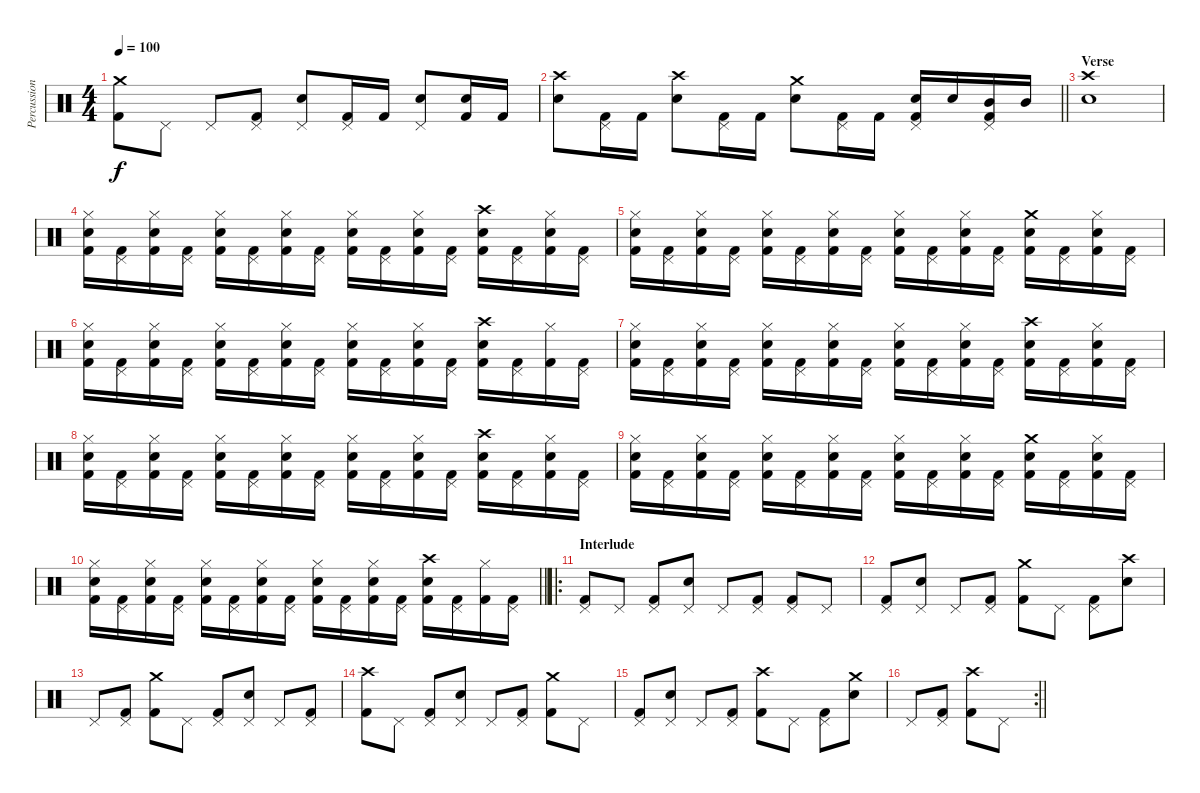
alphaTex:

\track ("Percussion" "Percussion") {instrument percussion}
\staff {score}
\articulation defaults
\ts (4 4)
\tempo 100
\clef neutral
\ks c
("Crash medium (hit)" "Kick (hit) 2").8{dy f} "Pedal Hi-Hat (hit)".8 "Pedal Hi-Hat (hit)".8 ("Pedal Hi-Hat (hit)" "Kick (hit) 2").8 ("Pedal Hi-Hat (hit)" "Snare (hit) 2").8 ("Pedal Hi-Hat (hit)" "Kick (hit) 2").16 "Kick (hit) 2".16 ("Pedal Hi-Hat (hit)" "Snare (hit) 2").8 ("Snare (hit)" "Kick (hit) 2").16 "Kick (hit) 2".16 |
\barLineRight lightlight
("Crash high (hit)" "Snare (hit) 2").8 ("Pedal Hi-Hat (hit)" "Kick (hit) 2").16 "Kick (hit) 2".16 ("Crash high (hit)" "Snare (hit) 2").8 ("Pedal Hi-Hat (hit)" "Kick (hit) 2").16 "Kick (hit) 2".16 ("Crash medium (hit)" "Snare (hit) 2").8 ("Pedal Hi-Hat (hit)" "Kick (hit) 2").16 "Kick (hit) 2".16 ("Pedal Hi-Hat (hit)" "Snare (hit) 2" "Kick (hit) 2").16 "Snare (hit) 2".16 ("Pedal Hi-Hat (hit)" "Mid Tom (hit)" "Kick (hit) 2").16 "Mid Tom (hit)".16 |
\section ("" "Verse")
("Crash high (hit)" "Snare (hit) 2").1 |
("Hi-Hat (closed)" "Snare (hit) 2" "Kick (hit) 2").16 ("Pedal Hi-Hat (hit)" "Kick (hit) 2").16 ("Hi-Hat (closed)" "Snare (hit) 2" "Kick (hit) 2").16 ("Pedal Hi-Hat (hit)" "Kick (hit) 2").16 ("Hi-Hat (closed)" "Snare (hit) 2" "Kick (hit) 2").16 ("Pedal Hi-Hat (hit)" "Kick (hit) 2").16 ("Hi-Hat (closed)" "Snare (hit) 2" "Kick (hit) 2").16 ("Pedal Hi-Hat (hit)" "Kick (hit) 2").16 ("Hi-Hat (closed)" "Snare (hit) 2" "Kick (hit) 2").16 ("Pedal Hi-Hat (hit)" "Kick (hit) 2").16 ("Hi-Hat (closed)" "Snare (hit) 2" "Kick (hit) 2").16 ("Pedal Hi-Hat (hit)" "Kick (hit) 2").16 ("Crash high (hit)" "Snare (hit) 2" "Kick (hit) 2").16 ("Pedal Hi-Hat (hit)" "Kick (hit) 2").16 ("Hi-Hat (closed)" "Snare (hit) 2" "Kick (hit) 2").16 ("Pedal Hi-Hat (hit)" "Kick (hit) 2").16 |
("Hi-Hat (closed)" "Snare (hit) 2" "Kick (hit) 2").16 ("Pedal Hi-Hat (hit)" "Kick (hit) 2").16 ("Hi-Hat (closed)" "Snare (hit) 2" "Kick (hit) 2").16 ("Pedal Hi-Hat (hit)" "Kick (hit) 2").16 ("Hi-Hat (closed)" "Snare (hit) 2" "Kick (hit) 2").16 ("Pedal Hi-Hat (hit)" "Kick (hit) 2").16 ("Hi-Hat (closed)" "Snare (hit) 2" "Kick (hit) 2").16 ("Pedal Hi-Hat (hit)" "Kick (hit) 2").16 ("Hi-Hat (closed)" "Snare (hit) 2" "Kick (hit) 2").16 ("Pedal Hi-Hat (hit)" "Kick (hit) 2").16 ("Hi-Hat (closed)" "Snare (hit) 2" "Kick (hit) 2").16 ("Pedal Hi-Hat (hit)" "Kick (hit) 2").16 ("Crash medium (hit)" "Snare (hit) 2" "Kick (hit) 2").16 ("Pedal Hi-Hat (hit)" "Kick (hit) 2").16 ("Hi-Hat (closed)" "Snare (hit) 2" "Kick (hit) 2").16 ("Pedal Hi-Hat (hit)" "Kick (hit) 2").16 |
("Hi-Hat (closed)" "Snare (hit) 2" "Kick (hit) 2").16 ("Pedal Hi-Hat (hit)" "Kick (hit) 2").16 ("Hi-Hat (closed)" "Snare (hit) 2" "Kick (hit) 2").16 ("Pedal Hi-Hat (hit)" "Kick (hit) 2").16 ("Hi-Hat (closed)" "Snare (hit) 2" "Kick (hit) 2").16 ("Pedal Hi-Hat (hit)" "Kick (hit) 2").16 ("Hi-Hat (closed)" "Snare (hit) 2" "Kick (hit) 2").16 ("Pedal Hi-Hat (hit)" "Kick (hit) 2").16 ("Hi-Hat (closed)" "Snare (hit) 2" "Kick (hit) 2").16 ("Pedal Hi-Hat (hit)" "Kick (hit) 2").16 ("Hi-Hat (closed)" "Snare (hit) 2" "Kick (hit) 2").16 ("Pedal Hi-Hat (hit)" "Kick (hit) 2").16 ("Crash high (hit)" "Snare (hit) 2" "Kick (hit) 2").16 ("Pedal Hi-Hat (hit)" "Kick (hit) 2").16 ("Hi-Hat (closed)" "Kick (hit) 2").16 ("Pedal Hi-Hat (hit)" "Kick (hit) 2").16 |
("Hi-Hat (closed)" "Snare (hit) 2" "Kick (hit) 2").16 ("Pedal Hi-Hat (hit)" "Kick (hit) 2").16 ("Hi-Hat (closed)" "Snare (hit) 2" "Kick (hit) 2").16 ("Pedal Hi-Hat (hit)" "Kick (hit) 2").16 ("Hi-Hat (closed)" "Snare (hit) 2" "Kick (hit) 2").16 ("Pedal Hi-Hat (hit)" "Kick (hit) 2").16 ("Hi-Hat (closed)" "Snare (hit) 2" "Kick (hit) 2").16 ("Pedal Hi-Hat (hit)" "Kick (hit) 2").16 ("Hi-Hat (closed)" "Snare (hit) 2" "Kick (hit) 2").16 ("Pedal Hi-Hat (hit)" "Kick (hit) 2").16 ("Hi-Hat (closed)" "Snare (hit) 2" "Kick (hit) 2").16 ("Pedal Hi-Hat (hit)" "Kick (hit) 2").16 ("Crash high (hit)" "Snare (hit) 2" "Kick (hit) 2").16 ("Pedal Hi-Hat (hit)" "Kick (hit) 2").16 ("Hi-Hat (closed)" "Snare (hit) 2" "Kick (hit) 2").16 ("Pedal Hi-Hat (hit)" "Kick (hit) 2").16 |
("Hi-Hat (closed)" "Snare (hit) 2" "Kick (hit) 2").16 ("Pedal Hi-Hat (hit)" "Kick (hit) 2").16 ("Hi-Hat (closed)" "Snare (hit) 2" "Kick (hit) 2").16 ("Pedal Hi-Hat (hit)" "Kick (hit) 2").16 ("Hi-Hat (closed)" "Snare (hit) 2" "Kick (hit) 2").16 ("Pedal Hi-Hat (hit)" "Kick (hit) 2").16 ("Hi-Hat (closed)" "Snare (hit) 2" "Kick (hit) 2").16 ("Pedal Hi-Hat (hit)" "Kick (hit) 2").16 ("Hi-Hat (closed)" "Snare (hit) 2" "Kick (hit) 2").16 ("Pedal Hi-Hat (hit)" "Kick (hit) 2").16 ("Hi-Hat (closed)" "Snare (hit) 2" "Kick (hit) 2").16 ("Pedal Hi-Hat (hit)" "Kick (hit) 2").16 ("Crash high (hit)" "Snare (hit) 2" "Kick (hit) 2").16 ("Pedal Hi-Hat (hit)" "Kick (hit) 2").16 ("Hi-Hat (closed)" "Snare (hit) 2" "Kick (hit) 2").16 ("Pedal Hi-Hat (hit)" "Kick (hit) 2").16 |
("Hi-Hat (closed)" "Snare (hit) 2" "Kick (hit) 2").16 ("Pedal Hi-Hat (hit)" "Kick (hit) 2").16 ("Hi-Hat (closed)" "Snare (hit) 2" "Kick (hit) 2").16 ("Pedal Hi-Hat (hit)" "Kick (hit) 2").16 ("Hi-Hat (closed)" "Snare (hit) 2" "Kick (hit) 2").16 ("Pedal Hi-Hat (hit)" "Kick (hit) 2").16 ("Hi-Hat (closed)" "Snare (hit) 2" "Kick (hit) 2").16 ("Pedal Hi-Hat (hit)" "Kick (hit) 2").16 ("Hi-Hat (closed)" "Snare (hit) 2" "Kick (hit) 2").16 ("Pedal Hi-Hat (hit)" "Kick (hit) 2").16 ("Hi-Hat (closed)" "Snare (hit) 2" "Kick (hit) 2").16 ("Pedal Hi-Hat (hit)" "Kick (hit) 2").16 ("Crash medium (hit)" "Snare (hit) 2" "Kick (hit) 2").16 ("Pedal Hi-Hat (hit)" "Kick (hit) 2").16 ("Hi-Hat (closed)" "Snare (hit) 2" "Kick (hit) 2").16 ("Pedal Hi-Hat (hit)" "Kick (hit) 2").16 |
\barLineRight lightlight
("Hi-Hat (closed)" "Snare (hit) 2" "Kick (hit) 2").16 ("Pedal Hi-Hat (hit)" "Kick (hit) 2").16 ("Hi-Hat (closed)" "Snare (hit) 2" "Kick (hit) 2").16 ("Pedal Hi-Hat (hit)" "Kick (hit) 2").16 ("Hi-Hat (closed)" "Snare (hit) 2" "Kick (hit) 2").16 ("Pedal Hi-Hat (hit)" "Kick (hit) 2").16 ("Hi-Hat (closed)" "Snare (hit) 2" "Kick (hit) 2").16 ("Pedal Hi-Hat (hit)" "Kick (hit) 2").16 ("Hi-Hat (closed)" "Snare (hit) 2" "Kick (hit) 2").16 ("Pedal Hi-Hat (hit)" "Kick (hit) 2").16 ("Hi-Hat (closed)" "Snare (hit) 2" "Kick (hit) 2").16 ("Pedal Hi-Hat (hit)" "Kick (hit) 2").16 ("Crash high (hit)" "Snare (hit) 2" "Kick (hit) 2").16 ("Pedal Hi-Hat (hit)" "Kick (hit) 2").16 ("Hi-Hat (closed)" "Kick (hit) 2").16 ("Pedal Hi-Hat (hit)" "Kick (hit) 2").16 |
\ro
\section ("" "Interlude")
("Pedal Hi-Hat (hit)" "Kick (hit) 2").8 "Pedal Hi-Hat (hit)".8 ("Pedal Hi-Hat (hit)" "Kick (hit) 2").8 ("Pedal Hi-Hat (hit)" "Snare (hit) 2").8 "Pedal Hi-Hat (hit)".8 ("Pedal Hi-Hat (hit)" "Kick (hit) 2").8 ("Pedal Hi-Hat (hit)" "Kick (hit) 2").8 "Pedal Hi-Hat (hit)".8 |
("Pedal Hi-Hat (hit)" "Kick (hit) 2").8 ("Pedal Hi-Hat (hit)" "Snare (hit) 2").8 "Pedal Hi-Hat (hit)".8 ("Pedal Hi-Hat (hit)" "Kick (hit) 2").8 ("Crash medium (hit)" "Kick (hit) 2").8 "Pedal Hi-Hat (hit)".8 ("Pedal Hi-Hat (hit)" "Kick (hit) 2").8 ("Crash high (hit)" "Snare (hit) 2").8 |
"Pedal Hi-Hat (hit)".8 ("Pedal Hi-Hat (hit)" "Kick (hit) 2").8 ("Crash medium (hit)" "Kick (hit) 2").8 "Pedal Hi-Hat (hit)".8 ("Pedal Hi-Hat (hit)" "Kick (hit) 2").8 ("Pedal Hi-Hat (hit)" "Snare (hit) 2").8 "Pedal Hi-Hat (hit)".8 ("Pedal Hi-Hat (hit)" "Kick (hit) 2").8 |
("Crash high (hit)" "Kick (hit) 2").8 "Pedal Hi-Hat (hit)".8 ("Pedal Hi-Hat (hit)" "Kick (hit) 2").8 ("Pedal Hi-Hat (hit)" "Snare (hit) 2").8 "Pedal Hi-Hat (hit)".8 ("Pedal Hi-Hat (hit)" "Kick (hit) 2").8 ("Crash medium (hit)" "Kick (hit) 2").8 "Pedal Hi-Hat (hit)".8 |
("Pedal Hi-Hat (hit)" "Kick (hit) 2").8 ("Pedal Hi-Hat (hit)" "Snare (hit) 2").8 "Pedal Hi-Hat (hit)".8 ("Pedal Hi-Hat (hit)" "Kick (hit) 2").8 ("Crash high (hit)" "Kick (hit) 2").8 "Pedal Hi-Hat (hit)".8 ("Pedal Hi-Hat (hit)" "Kick (hit) 2").8 ("Crash medium (hit)" "Snare (hit) 2").8 |
\rc 2
\barLineRight lightlight "Pedal Hi-Hat (hit)".8
("Pedal Hi-Hat (hit)" "Kick (hit) 2").8 ("Crash high (hit)" "Kick (hit) 2").8 "Pedal Hi-Hat (hit)".8
